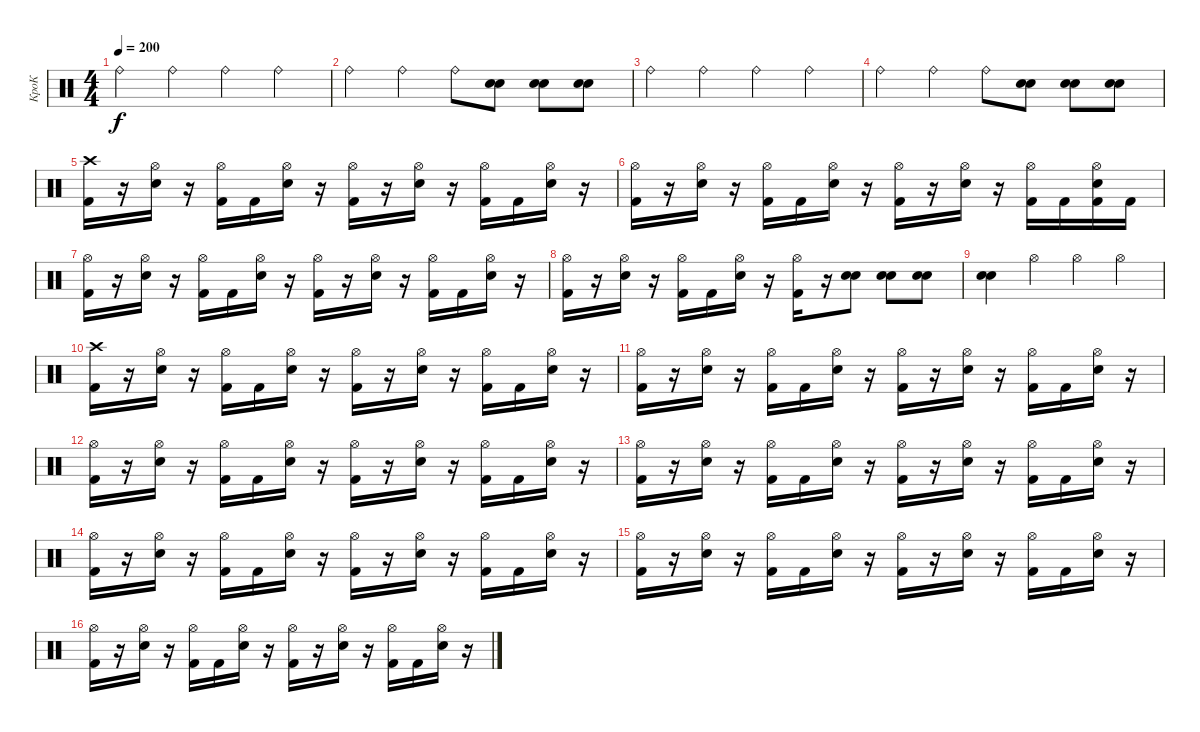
\track ("КроК" "КроК") {instrument percussion}
\staff {score}
\articulation defaults
\ts (4 4)
\tempo 200
\clef neutral
\ks c "Ride (bell)".4{dy f} "Ride (bell)".4 "Ride (bell)".4 "Ride (bell)".4
|
"Ride (bell)".4 "Ride (bell)".4 "Ride (bell)".8 ("Electric Snare (hit)" "Electric Snare (hit)").8 ("Electric Snare (hit)" "Electric Snare (hit)").8 ("Electric Snare (hit)" "Electric Snare (hit)").8 |
"Ride (bell)".4 "Ride (bell)".4 "Ride (bell)".4 "Ride (bell)".4 |
"Ride (bell)".4 "Ride (bell)".4 "Ride (bell)".8 ("Electric Snare (hit)" "Electric Snare (hit)").8 ("Electric Snare (hit)" "Electric Snare (hit)").8 ("Electric Snare (hit)" "Electric Snare (hit)").8 |
("Crash high (hit)" "Kick (hit) 2").16 r.16 ("Hi-Hat (open)" "Electric Snare (hit)").16 r.16 ("Hi-Hat (open)" "Kick (hit) 2").16 "Kick (hit) 2".16 ("Hi-Hat (open)" "Electric Snare (hit)").16 r.16 ("Hi-Hat (open)" "Kick (hit) 2").16 r.16 ("Hi-Hat (open)" "Electric Snare (hit)").16 r.16 ("Hi-Hat (open)" "Kick (hit) 2").16 "Kick (hit) 2".16 ("Hi-Hat (open)" "Electric Snare (hit)").16 r.16 |
("Hi-Hat (open)" "Kick (hit) 2").16 r.16 ("Hi-Hat (open)" "Electric Snare (hit)").16 r.16 ("Hi-Hat (open)" "Kick (hit) 2").16 "Kick (hit) 2".16 ("Hi-Hat (open)" "Electric Snare (hit)").16 r.16 ("Hi-Hat (open)" "Kick (hit) 2").16 r.16 ("Hi-Hat (open)" "Electric Snare (hit)").16 r.16 ("Hi-Hat (open)" "Kick (hit) 2").16 "Kick (hit) 2".16 ("Hi-Hat (open)" "Electric Snare (hit)" "Kick (hit) 2").16 "Kick (hit) 2".16 |
("Hi-Hat (open)" "Kick (hit) 2").16 r.16 ("Hi-Hat (open)" "Electric Snare (hit)").16 r.16 ("Hi-Hat (open)" "Kick (hit) 2").16 "Kick (hit) 2".16 ("Hi-Hat (open)" "Electric Snare (hit)").16 r.16 ("Hi-Hat (open)" "Kick (hit) 2").16 r.16 ("Hi-Hat (open)" "Electric Snare (hit)").16 r.16 ("Hi-Hat (open)" "Kick (hit) 2").16 "Kick (hit) 2".16 ("Hi-Hat (open)" "Electric Snare (hit)").16 r.16 |
("Hi-Hat (open)" "Kick (hit) 2").16 r.16 ("Hi-Hat (open)" "Electric Snare (hit)").16 r.16 ("Hi-Hat (open)" "Kick (hit) 2").16 "Kick (hit) 2".16 ("Hi-Hat (open)" "Electric Snare (hit)").16 r.16 ("Hi-Hat (open)" "Kick (hit) 2").16 r.16 ("Electric Snare (hit)" "Electric Snare (hit)").8 ("Electric Snare (hit)" "Electric Snare (hit)").8 ("Electric Snare (hit)" "Electric Snare (hit)").8 |
("Electric Snare (hit)" "Electric Snare (hit)").4 "Hi-Hat (open)".4 "Hi-Hat (open)".4 "Hi-Hat (open)".4 |
("Crash high (hit)" "Kick (hit) 2").16 r.16 ("Hi-Hat (open)" "Electric Snare (hit)").16 r.16 ("Hi-Hat (open)" "Kick (hit) 2").16 "Kick (hit) 2".16 ("Hi-Hat (open)" "Electric Snare (hit)").16 r.16 ("Hi-Hat (open)" "Kick (hit) 2").16 r.16 ("Hi-Hat (open)" "Electric Snare (hit)").16 r.16 ("Hi-Hat (open)" "Kick (hit) 2").16 "Kick (hit) 2".16 ("Hi-Hat (open)" "Electric Snare (hit)").16 r.16 |
("Hi-Hat (open)" "Kick (hit) 2").16 r.16 ("Hi-Hat (open)" "Electric Snare (hit)").16 r.16 ("Hi-Hat (open)" "Kick (hit) 2").16 "Kick (hit) 2".16 ("Hi-Hat (open)" "Electric Snare (hit)").16 r.16 ("Hi-Hat (open)" "Kick (hit) 2").16 r.16 ("Hi-Hat (open)" "Electric Snare (hit)").16 r.16 ("Hi-Hat (open)" "Kick (hit) 2").16 "Kick (hit) 2".16 ("Hi-Hat (open)" "Electric Snare (hit)").16 r.16 |
("Hi-Hat (open)" "Kick (hit) 2").16 r.16 ("Hi-Hat (open)" "Electric Snare (hit)").16 r.16 ("Hi-Hat (open)" "Kick (hit) 2").16 "Kick (hit) 2".16 ("Hi-Hat (open)" "Electric Snare (hit)").16 r.16 ("Hi-Hat (open)" "Kick (hit) 2").16 r.16 ("Hi-Hat (open)" "Electric Snare (hit)").16 r.16 ("Hi-Hat (open)" "Kick (hit) 2").16 "Kick (hit) 2".16 ("Hi-Hat (open)" "Electric Snare (hit)").16 r.16 |
("Hi-Hat (open)" "Kick (hit) 2").16 r.16 ("Hi-Hat (open)" "Electric Snare (hit)").16 r.16 ("Hi-Hat (open)" "Kick (hit) 2").16 "Kick (hit) 2".16 ("Hi-Hat (open)" "Electric Snare (hit)").16 r.16 ("Hi-Hat (open)" "Kick (hit) 2").16 r.16 ("Hi-Hat (open)" "Electric Snare (hit)").16 r.16 ("Hi-Hat (open)" "Kick (hit) 2").16 "Kick (hit) 2".16 ("Hi-Hat (open)" "Electric Snare (hit)").16 r.16 |
("Hi-Hat (open)" "Kick (hit) 2").16 r.16 ("Hi-Hat (open)" "Electric Snare (hit)").16 r.16 ("Hi-Hat (open)" "Kick (hit) 2").16 "Kick (hit) 2".16 ("Hi-Hat (open)" "Electric Snare (hit)").16 r.16 ("Hi-Hat (open)" "Kick (hit) 2").16 r.16 ("Hi-Hat (open)" "Electric Snare (hit)").16 r.16 ("Hi-Hat (open)" "Kick (hit) 2").16 "Kick (hit) 2".16 ("Hi-Hat (open)" "Electric Snare (hit)").16 r.16 |
("Hi-Hat (open)" "Kick (hit) 2").16 r.16 ("Hi-Hat (open)" "Electric Snare (hit)").16 r.16 ("Hi-Hat (open)" "Kick (hit) 2").16 "Kick (hit) 2".16 ("Hi-Hat (open)" "Electric Snare (hit)").16 r.16 ("Hi-Hat (open)" "Kick (hit) 2").16 r.16 ("Hi-Hat (open)" "Electric Snare (hit)").16 r.16 ("Hi-Hat (open)" "Kick (hit) 2").16 "Kick (hit) 2".16 ("Hi-Hat (open)" "Electric Snare (hit)").16 r.16 |
("Hi-Hat (open)" "Kick (hit) 2").16 r.16 ("Hi-Hat (open)" "Electric Snare (hit)").16 r.16 ("Hi-Hat (open)" "Kick (hit) 2").16 "Kick (hit) 2".16 ("Hi-Hat (open)" "Electric Snare (hit)").16 r.16 ("Hi-Hat (open)" "Kick (hit) 2").16 r.16 ("Hi-Hat (open)" "Electric Snare (hit)").16 r.16 ("Hi-Hat (open)" "Kick (hit) 2").16 "Kick (hit) 2".16 ("Hi-Hat (open)" "Electric Snare (hit)").16 r.16
